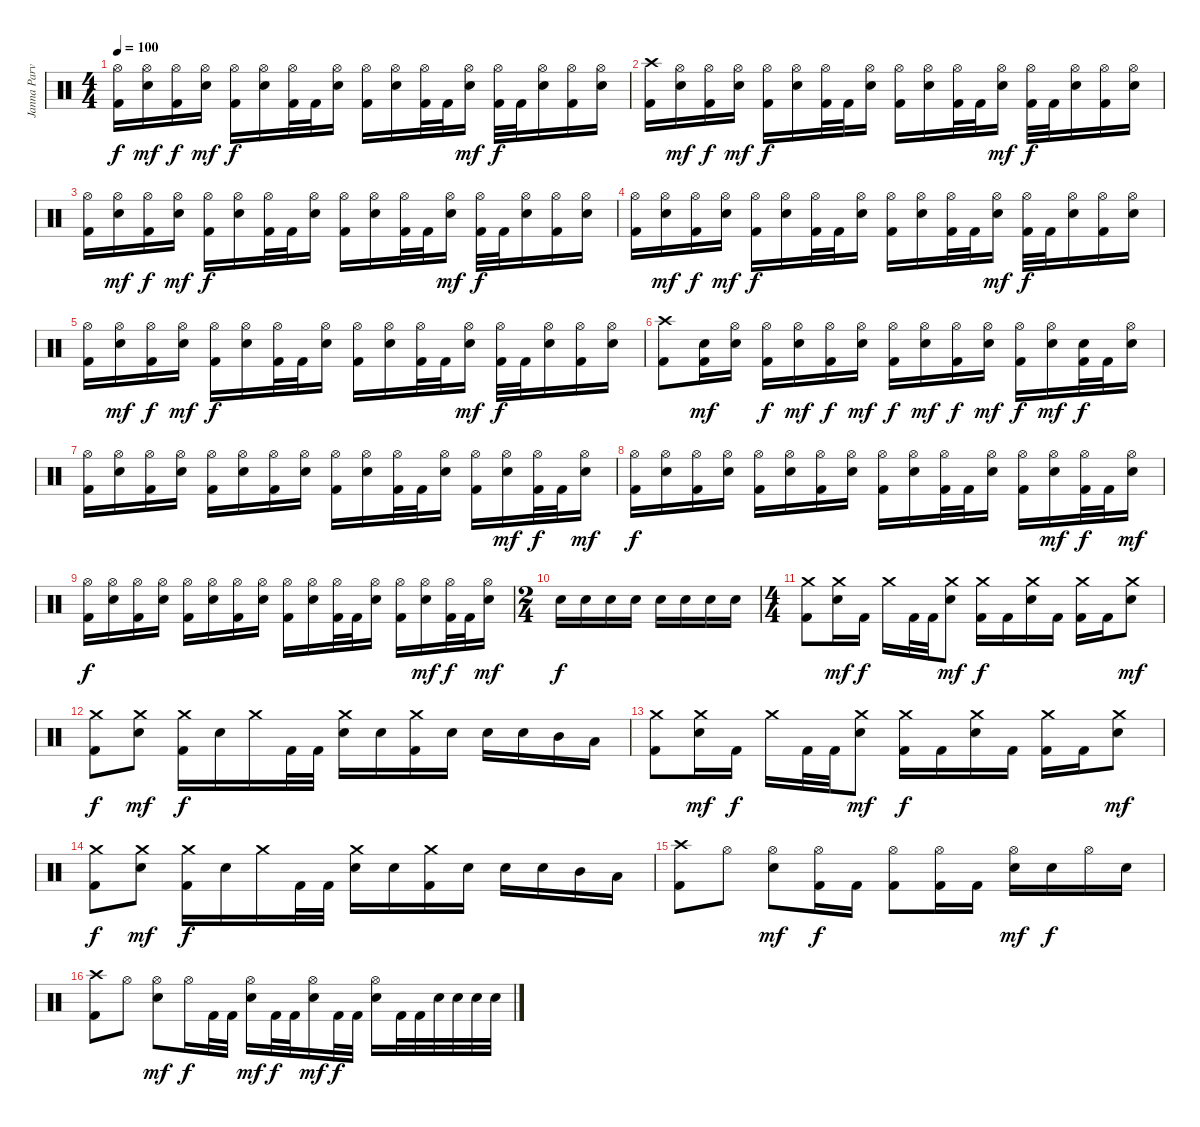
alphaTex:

\track ("Janna Parvienen" "Janna Parv") {solo instrument percussion}
\staff {score}
\articulation defaults
\ts (4 4)
\tempo 100
\clef neutral
\ks c
("Hi-Hat (open)" "Kick (hit) 2").16{dy f} ("Hi-Hat (open)" "Electric Snare (hit)").16{dy mf} ("Hi-Hat (open)" "Kick (hit) 2").16{dy f} ("Hi-Hat (open)" "Electric Snare (hit)").16{dy mf} ("Hi-Hat (open)" "Kick (hit) 2").16{dy f} ("Hi-Hat (open)" "Electric Snare (hit)").16 ("Hi-Hat (open)" "Kick (hit) 2").32 "Kick (hit) 2".32 ("Hi-Hat (open)" "Electric Snare (hit)").16 ("Hi-Hat (open)" "Kick (hit) 2").16 ("Hi-Hat (open)" "Electric Snare (hit)").16 ("Hi-Hat (open)" "Kick (hit) 2").32 "Kick (hit) 2".32 ("Hi-Hat (open)" "Electric Snare (hit)").16{dy mf} ("Hi-Hat (open)" "Kick (hit) 2").32{dy f} "Kick (hit) 2".32 ("Hi-Hat (open)" "Electric Snare (hit)").16 ("Hi-Hat (open)" "Kick (hit) 2").16 ("Hi-Hat (open)" "Electric Snare (hit)").16 |
("Crash high (hit)" "Kick (hit) 2").16 ("Hi-Hat (open)" "Electric Snare (hit)").16{dy mf} ("Hi-Hat (open)" "Kick (hit) 2").16{dy f} ("Hi-Hat (open)" "Electric Snare (hit)").16{dy mf} ("Hi-Hat (open)" "Kick (hit) 2").16{dy f} ("Hi-Hat (open)" "Electric Snare (hit)").16 ("Hi-Hat (open)" "Kick (hit) 2").32 "Kick (hit) 2".32 ("Hi-Hat (open)" "Electric Snare (hit)").16 ("Hi-Hat (open)" "Kick (hit) 2").16 ("Hi-Hat (open)" "Electric Snare (hit)").16 ("Hi-Hat (open)" "Kick (hit) 2").32 "Kick (hit) 2".32 ("Hi-Hat (open)" "Electric Snare (hit)").16{dy mf} ("Hi-Hat (open)" "Kick (hit) 2").32{dy f} "Kick (hit) 2".32 ("Hi-Hat (open)" "Electric Snare (hit)").16 ("Hi-Hat (open)" "Kick (hit) 2").16 ("Hi-Hat (open)" "Electric Snare (hit)").16 |
("Hi-Hat (open)" "Kick (hit) 2").16 ("Hi-Hat (open)" "Electric Snare (hit)").16{dy mf} ("Hi-Hat (open)" "Kick (hit) 2").16{dy f} ("Hi-Hat (open)" "Electric Snare (hit)").16{dy mf} ("Hi-Hat (open)" "Kick (hit) 2").16{dy f} ("Hi-Hat (open)" "Electric Snare (hit)").16 ("Hi-Hat (open)" "Kick (hit) 2").32 "Kick (hit) 2".32 ("Hi-Hat (open)" "Electric Snare (hit)").16 ("Hi-Hat (open)" "Kick (hit) 2").16 ("Hi-Hat (open)" "Electric Snare (hit)").16 ("Hi-Hat (open)" "Kick (hit) 2").32 "Kick (hit) 2".32 ("Hi-Hat (open)" "Electric Snare (hit)").16{dy mf} ("Hi-Hat (open)" "Kick (hit) 2").32{dy f} "Kick (hit) 2".32 ("Hi-Hat (open)" "Electric Snare (hit)").16 ("Hi-Hat (open)" "Kick (hit) 2").16 ("Hi-Hat (open)" "Electric Snare (hit)").16 |
("Hi-Hat (open)" "Kick (hit) 2").16 ("Hi-Hat (open)" "Electric Snare (hit)").16{dy mf} ("Hi-Hat (open)" "Kick (hit) 2").16{dy f} ("Hi-Hat (open)" "Electric Snare (hit)").16{dy mf} ("Hi-Hat (open)" "Kick (hit) 2").16{dy f} ("Hi-Hat (open)" "Electric Snare (hit)").16 ("Hi-Hat (open)" "Kick (hit) 2").32 "Kick (hit) 2".32 ("Hi-Hat (open)" "Electric Snare (hit)").16 ("Hi-Hat (open)" "Kick (hit) 2").16 ("Hi-Hat (open)" "Electric Snare (hit)").16 ("Hi-Hat (open)" "Kick (hit) 2").32 "Kick (hit) 2".32 ("Hi-Hat (open)" "Electric Snare (hit)").16{dy mf} ("Hi-Hat (open)" "Kick (hit) 2").32{dy f} "Kick (hit) 2".32 ("Hi-Hat (open)" "Electric Snare (hit)").16 ("Hi-Hat (open)" "Kick (hit) 2").16 ("Hi-Hat (open)" "Electric Snare (hit)").16 |
("Hi-Hat (open)" "Kick (hit) 2").16 ("Hi-Hat (open)" "Electric Snare (hit)").16{dy mf} ("Hi-Hat (open)" "Kick (hit) 2").16{dy f} ("Hi-Hat (open)" "Electric Snare (hit)").16{dy mf} ("Hi-Hat (open)" "Kick (hit) 2").16{dy f} ("Hi-Hat (open)" "Electric Snare (hit)").16 ("Hi-Hat (open)" "Kick (hit) 2").32 "Kick (hit) 2".32 ("Hi-Hat (open)" "Electric Snare (hit)").16 ("Hi-Hat (open)" "Kick (hit) 2").16 ("Hi-Hat (open)" "Electric Snare (hit)").16 ("Hi-Hat (open)" "Kick (hit) 2").32 "Kick (hit) 2".32 ("Hi-Hat (open)" "Electric Snare (hit)").16{dy mf} ("Hi-Hat (open)" "Kick (hit) 2").32{dy f} "Kick (hit) 2".32 ("Hi-Hat (open)" "Electric Snare (hit)").16 ("Hi-Hat (open)" "Kick (hit) 2").16 ("Hi-Hat (open)" "Electric Snare (hit)").16 |
("Crash high (hit)" "Kick (hit) 2").8 ("Electric Snare (hit)" "Kick (hit) 2").16{dy mf} ("Hi-Hat (open)" "Electric Snare (hit)").16 ("Hi-Hat (open)" "Kick (hit) 2").16{dy f} ("Hi-Hat (open)" "Electric Snare (hit)").16{dy mf} ("Hi-Hat (open)" "Kick (hit) 2").16{dy f} ("Hi-Hat (open)" "Electric Snare (hit)").16{dy mf} ("Hi-Hat (open)" "Kick (hit) 2").16{dy f} ("Hi-Hat (open)" "Electric Snare (hit)").16{dy mf} ("Hi-Hat (open)" "Kick (hit) 2").16{dy f} ("Hi-Hat (open)" "Electric Snare (hit)").16{dy mf} ("Hi-Hat (open)" "Kick (hit) 2").16{dy f} ("Hi-Hat (open)" "Electric Snare (hit)").16{dy mf} ("Electric Snare (hit)" "Kick (hit) 2").32{dy f} "Kick (hit) 2".32 ("Hi-Hat (open)" "Electric Snare (hit)").16 |
("Hi-Hat (open)" "Kick (hit) 2").16 ("Hi-Hat (open)" "Electric Snare (hit)").16 ("Hi-Hat (open)" "Kick (hit) 2").16 ("Hi-Hat (open)" "Electric Snare (hit)").16 ("Hi-Hat (open)" "Kick (hit) 2").16 ("Hi-Hat (open)" "Electric Snare (hit)").16 ("Hi-Hat (open)" "Kick (hit) 2").16 ("Hi-Hat (open)" "Electric Snare (hit)").16 ("Hi-Hat (open)" "Kick (hit) 2").16 ("Hi-Hat (open)" "Electric Snare (hit)").16 ("Hi-Hat (open)" "Kick (hit) 2").32 "Kick (hit) 2".32 ("Hi-Hat (open)" "Electric Snare (hit)").16 ("Hi-Hat (open)" "Kick (hit) 2").16 ("Hi-Hat (open)" "Electric Snare (hit)").16{dy mf} ("Hi-Hat (open)" "Kick (hit) 2").32{dy f} "Kick (hit) 2".32 ("Hi-Hat (open)" "Electric Snare (hit)").16{dy mf} |
("Hi-Hat (open)" "Kick (hit) 2").16{dy f} ("Hi-Hat (open)" "Electric Snare (hit)").16 ("Hi-Hat (open)" "Kick (hit) 2").16 ("Hi-Hat (open)" "Electric Snare (hit)").16 ("Hi-Hat (open)" "Kick (hit) 2").16 ("Hi-Hat (open)" "Electric Snare (hit)").16 ("Hi-Hat (open)" "Kick (hit) 2").16 ("Hi-Hat (open)" "Electric Snare (hit)").16 ("Hi-Hat (open)" "Kick (hit) 2").16 ("Hi-Hat (open)" "Electric Snare (hit)").16 ("Hi-Hat (open)" "Kick (hit) 2").32 "Kick (hit) 2".32 ("Hi-Hat (open)" "Electric Snare (hit)").16 ("Hi-Hat (open)" "Kick (hit) 2").16 ("Hi-Hat (open)" "Electric Snare (hit)").16{dy mf} ("Hi-Hat (open)" "Kick (hit) 2").32{dy f} "Kick (hit) 2".32 ("Hi-Hat (open)" "Electric Snare (hit)").16{dy mf} |
("Hi-Hat (open)" "Kick (hit) 2").16{dy f} ("Hi-Hat (open)" "Electric Snare (hit)").16 ("Hi-Hat (open)" "Kick (hit) 2").16 ("Hi-Hat (open)" "Electric Snare (hit)").16 ("Hi-Hat (open)" "Kick (hit) 2").16 ("Hi-Hat (open)" "Electric Snare (hit)").16 ("Hi-Hat (open)" "Kick (hit) 2").16 ("Hi-Hat (open)" "Electric Snare (hit)").16 ("Hi-Hat (open)" "Kick (hit) 2").16 ("Hi-Hat (open)" "Electric Snare (hit)").16 ("Hi-Hat (open)" "Kick (hit) 2").32 "Kick (hit) 2".32 ("Hi-Hat (open)" "Electric Snare (hit)").16 ("Hi-Hat (open)" "Kick (hit) 2").16 ("Hi-Hat (open)" "Electric Snare (hit)").16{dy mf} ("Hi-Hat (open)" "Kick (hit) 2").32{dy f} "Kick (hit) 2".32 ("Hi-Hat (open)" "Electric Snare (hit)").16{dy mf} |
\ts (2 4)
"Electric Snare (hit)".16{dy f} "Electric Snare (hit)".16 "Electric Snare (hit)".16 "Electric Snare (hit)".16 "Electric Snare (hit)".16 "Electric Snare (hit)".16 "Electric Snare (hit)".16 "Electric Snare (hit)".16 |
\ts (4 4)
("Crash medium (hit)" "Kick (hit) 2").8 ("Crash medium (hit)" "Electric Snare (hit)").16{dy mf} "Kick (hit) 2".16{dy f} "Crash medium (hit)".16 "Kick (hit) 2".32 "Kick (hit) 2".32 ("Crash medium (hit)" "Electric Snare (hit)").8{dy mf} ("Crash medium (hit)" "Kick (hit) 2").16{dy f} "Kick (hit) 2".16 ("Crash medium (hit)" "Electric Snare (hit)").16 "Kick (hit) 2".16 ("Crash medium (hit)" "Kick (hit) 2").16 "Kick (hit) 2".16 ("Crash medium (hit)" "Electric Snare (hit)").8{dy mf} |
("Crash medium (hit)" "Kick (hit) 2").8{dy f} ("Crash medium (hit)" "Electric Snare (hit)").8{dy mf} ("Crash medium (hit)" "Kick (hit) 2").16{dy f} "Electric Snare (hit)".16 "Crash medium (hit)".16 "Kick (hit) 2".32 "Kick (hit) 2".32 ("Crash medium (hit)" "Electric Snare (hit)").16 "Electric Snare (hit)".16 ("Crash medium (hit)" "Kick (hit) 2").16 "Electric Snare (hit)".16 "Electric Snare (hit)".16 "Electric Snare (hit)".16 "Mid Tom (hit)".16 "Low Tom (hit)".16 |
("Crash medium (hit)" "Kick (hit) 2").8 ("Crash medium (hit)" "Electric Snare (hit)").16{dy mf} "Kick (hit) 2".16{dy f} "Crash medium (hit)".16 "Kick (hit) 2".32 "Kick (hit) 2".32 ("Crash medium (hit)" "Electric Snare (hit)").8{dy mf} ("Crash medium (hit)" "Kick (hit) 2").16{dy f} "Kick (hit) 2".16 ("Crash medium (hit)" "Electric Snare (hit)").16 "Kick (hit) 2".16 ("Crash medium (hit)" "Kick (hit) 2").16 "Kick (hit) 2".16 ("Crash medium (hit)" "Electric Snare (hit)").8{dy mf} |
("Crash medium (hit)" "Kick (hit) 2").8{dy f} ("Crash medium (hit)" "Electric Snare (hit)").8{dy mf} ("Crash medium (hit)" "Kick (hit) 2").16{dy f} "Electric Snare (hit)".16 "Crash medium (hit)".16 "Kick (hit) 2".32 "Kick (hit) 2".32 ("Crash medium (hit)" "Electric Snare (hit)").16 "Electric Snare (hit)".16 ("Crash medium (hit)" "Kick (hit) 2").16 "Electric Snare (hit)".16 "Electric Snare (hit)".16 "Electric Snare (hit)".16 "Mid Tom (hit)".16 "Low Tom (hit)".16 |
("Crash high (hit)" "Kick (hit) 2").8 "Hi-Hat (open)".8 ("Hi-Hat (open)" "Electric Snare (hit)").8{dy mf} ("Hi-Hat (open)" "Kick (hit) 2").16{dy f} "Kick (hit) 2".16 ("Hi-Hat (open)" "Kick (hit) 2").8 ("Hi-Hat (open)" "Kick (hit) 2").16 "Kick (hit) 2".16 ("Hi-Hat (open)" "Electric Snare (hit)").16{dy mf} "Electric Snare (hit)".16{dy f} "Hi-Hat (open)".16 "Electric Snare (hit)".16 |
("Crash high (hit)" "Kick (hit) 2").8 "Hi-Hat (open)".8 ("Hi-Hat (open)" "Electric Snare (hit)").8{dy mf} "Hi-Hat (open)".16{dy f} "Kick (hit) 2".32 "Kick (hit) 2".32 ("Hi-Hat (open)" "Electric Snare (hit)").16{dy mf} "Kick (hit) 2".32{dy f} "Kick (hit) 2".32 ("Hi-Hat (open)" "Electric Snare (hit)").16{dy mf} "Kick (hit) 2".32{dy f} "Kick (hit) 2".32 ("Hi-Hat (open)" "Electric Snare (hit)").16 "Kick (hit) 2".32 "Kick (hit) 2".32 "Electric Snare (hit)".32 "Electric Snare (hit)".32 "Electric Snare (hit)".32 "Electric Snare (hit)".32
